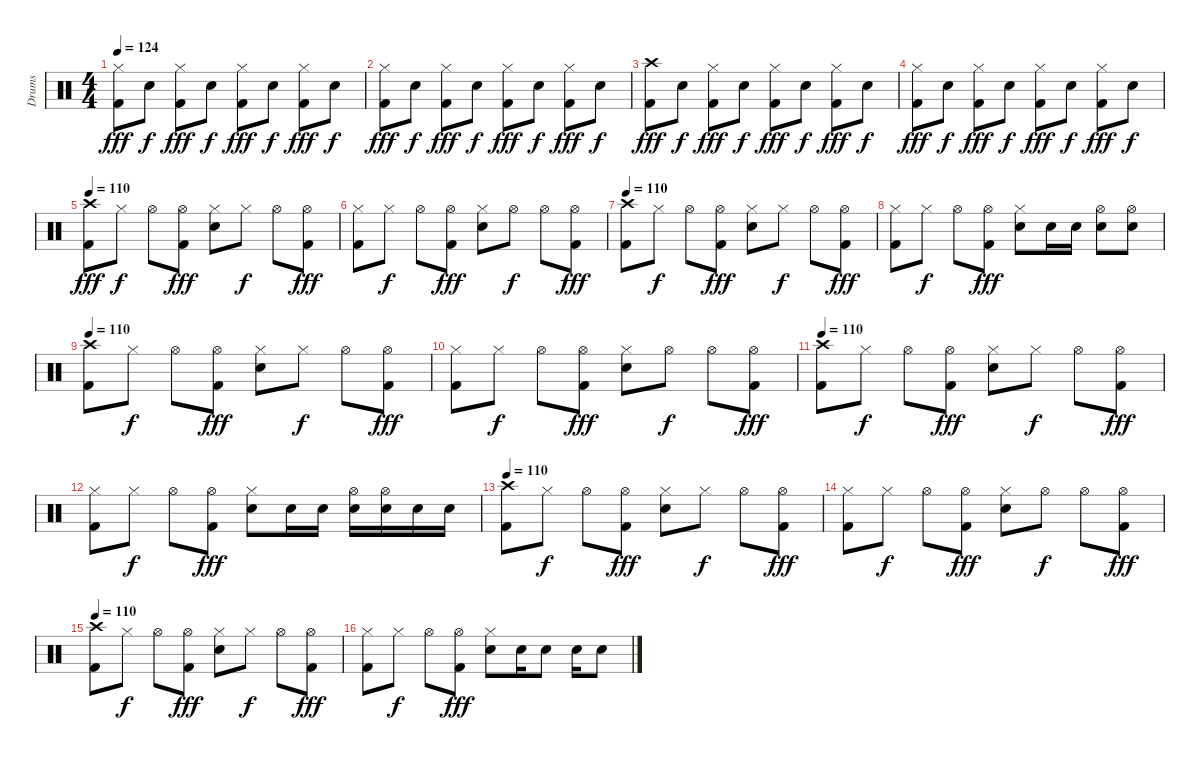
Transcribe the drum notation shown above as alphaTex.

\track ("Drums" "Drums") {instrument percussion}
\staff {score}
\articulation defaults
\ts (4 4)
\tempo 124
\clef neutral
\ks c
("Hi-Hat (closed)" "Kick (hit) 2").8{dy fff} "Snare (hit) 2".8{dy f} ("Hi-Hat (closed)" "Kick (hit) 2").8{dy fff} "Snare (hit) 2".8{dy f} ("Hi-Hat (closed)" "Kick (hit) 2").8{dy fff} "Snare (hit) 2".8{dy f} ("Hi-Hat (closed)" "Kick (hit) 2").8{dy fff} "Snare (hit) 2".8{dy f} |
("Hi-Hat (closed)" "Kick (hit) 2").8{dy fff} "Snare (hit) 2".8{dy f} ("Hi-Hat (closed)" "Kick (hit) 2").8{dy fff} "Snare (hit) 2".8{dy f} ("Hi-Hat (closed)" "Kick (hit) 2").8{dy fff} "Snare (hit) 2".8{dy f} ("Hi-Hat (closed)" "Kick (hit) 2").8{dy fff} "Snare (hit) 2".8{dy f} |
("Crash high (hit)" "Kick (hit) 2").8{dy fff} "Snare (hit) 2".8{dy f} ("Hi-Hat (closed)" "Kick (hit) 2").8{dy fff} "Snare (hit) 2".8{dy f} ("Hi-Hat (closed)" "Kick (hit) 2").8{dy fff} "Snare (hit) 2".8{dy f} ("Hi-Hat (closed)" "Kick (hit) 2").8{dy fff} "Snare (hit) 2".8{dy f} |
("Hi-Hat (closed)" "Kick (hit) 2").8{dy fff} "Snare (hit) 2".8{dy f} ("Hi-Hat (closed)" "Kick (hit) 2").8{dy fff} "Snare (hit) 2".8{dy f} ("Hi-Hat (closed)" "Kick (hit) 2").8{dy fff} "Snare (hit) 2".8{dy f} ("Hi-Hat (closed)" "Kick (hit) 2").8{dy fff} "Snare (hit) 2".8{dy f} |
\tempo 110
("Crash high (hit)" "Kick (hit) 2").8{dy fff} "Hi-Hat (closed)".8{dy f} "Hi-Hat (open)".8 ("Hi-Hat (open)" "Kick (hit) 2").8{dy fff} ("Hi-Hat (closed)" "Snare (hit) 2").8 "Hi-Hat (closed)".8{dy f} "Hi-Hat (open)".8 ("Hi-Hat (open)" "Kick (hit) 2").8{dy fff} |
("Hi-Hat (closed)" "Kick (hit) 2").8 "Hi-Hat (closed)".8{dy f} "Hi-Hat (open)".8 ("Hi-Hat (open)" "Kick (hit) 2").8{dy fff} ("Hi-Hat (closed)" "Snare (hit) 2").8 "Hi-Hat (open)".8{dy f} "Hi-Hat (open)".8 ("Hi-Hat (open)" "Kick (hit) 2").8{dy fff} |
\tempo 110
("Crash high (hit)" "Kick (hit) 2").8 "Hi-Hat (closed)".8{dy f} "Hi-Hat (open)".8 ("Hi-Hat (open)" "Kick (hit) 2").8{dy fff} ("Hi-Hat (closed)" "Snare (hit) 2").8 "Hi-Hat (closed)".8{dy f} "Hi-Hat (open)".8 ("Hi-Hat (open)" "Kick (hit) 2").8{dy fff} |
("Hi-Hat (closed)" "Kick (hit) 2").8 "Hi-Hat (closed)".8{dy f} "Hi-Hat (open)".8 ("Hi-Hat (open)" "Kick (hit) 2").8{dy fff} ("Hi-Hat (closed)" "Snare (hit) 2").8 "Snare (hit) 2".16 "Snare (hit) 2".16 ("Hi-Hat (open)" "Snare (hit) 2").8 ("Hi-Hat (open)" "Snare (hit) 2").8 |
\tempo 110
("Crash high (hit)" "Kick (hit) 2").8 "Hi-Hat (closed)".8{dy f} "Hi-Hat (open)".8 ("Hi-Hat (open)" "Kick (hit) 2").8{dy fff} ("Hi-Hat (closed)" "Snare (hit) 2").8 "Hi-Hat (closed)".8{dy f} "Hi-Hat (open)".8 ("Hi-Hat (open)" "Kick (hit) 2").8{dy fff} |
("Hi-Hat (closed)" "Kick (hit) 2").8 "Hi-Hat (closed)".8{dy f} "Hi-Hat (open)".8 ("Hi-Hat (open)" "Kick (hit) 2").8{dy fff} ("Hi-Hat (closed)" "Snare (hit) 2").8 "Hi-Hat (open)".8{dy f} "Hi-Hat (open)".8 ("Hi-Hat (open)" "Kick (hit) 2").8{dy fff} |
\tempo 110
("Crash high (hit)" "Kick (hit) 2").8 "Hi-Hat (closed)".8{dy f} "Hi-Hat (open)".8 ("Hi-Hat (open)" "Kick (hit) 2").8{dy fff} ("Hi-Hat (closed)" "Snare (hit) 2").8 "Hi-Hat (closed)".8{dy f} "Hi-Hat (open)".8 ("Hi-Hat (open)" "Kick (hit) 2").8{dy fff} |
("Hi-Hat (closed)" "Kick (hit) 2").8 "Hi-Hat (closed)".8{dy f} "Hi-Hat (open)".8 ("Hi-Hat (open)" "Kick (hit) 2").8{dy fff} ("Hi-Hat (closed)" "Snare (hit) 2").8 "Snare (hit) 2".16 "Snare (hit) 2".16 ("Hi-Hat (open)" "Snare (hit) 2").16 ("Hi-Hat (open)" "Snare (hit) 2").16 "Snare (hit) 2".16 "Snare (hit) 2".16 |
\tempo 110
("Crash high (hit)" "Kick (hit) 2").8 "Hi-Hat (closed)".8{dy f} "Hi-Hat (open)".8 ("Hi-Hat (open)" "Kick (hit) 2").8{dy fff} ("Hi-Hat (closed)" "Snare (hit) 2").8 "Hi-Hat (closed)".8{dy f} "Hi-Hat (open)".8 ("Hi-Hat (open)" "Kick (hit) 2").8{dy fff} |
("Hi-Hat (closed)" "Kick (hit) 2").8 "Hi-Hat (closed)".8{dy f} "Hi-Hat (open)".8 ("Hi-Hat (open)" "Kick (hit) 2").8{dy fff} ("Hi-Hat (closed)" "Snare (hit) 2").8 "Hi-Hat (open)".8{dy f} "Hi-Hat (open)".8 ("Hi-Hat (open)" "Kick (hit) 2").8{dy fff} |
\tempo 110
("Crash high (hit)" "Kick (hit) 2").8 "Hi-Hat (closed)".8{dy f} "Hi-Hat (open)".8 ("Hi-Hat (open)" "Kick (hit) 2").8{dy fff} ("Hi-Hat (closed)" "Snare (hit) 2").8 "Hi-Hat (closed)".8{dy f} "Hi-Hat (open)".8 ("Hi-Hat (open)" "Kick (hit) 2").8{dy fff} |
("Hi-Hat (closed)" "Kick (hit) 2").8 "Hi-Hat (closed)".8{dy f} "Hi-Hat (open)".8 ("Hi-Hat (open)" "Kick (hit) 2").8{dy fff} ("Hi-Hat (closed)" "Snare (hit) 2").8 "Snare (hit) 2".16 "Snare (hit) 2".8 "Snare (hit) 2".16 "Snare (hit) 2".8
